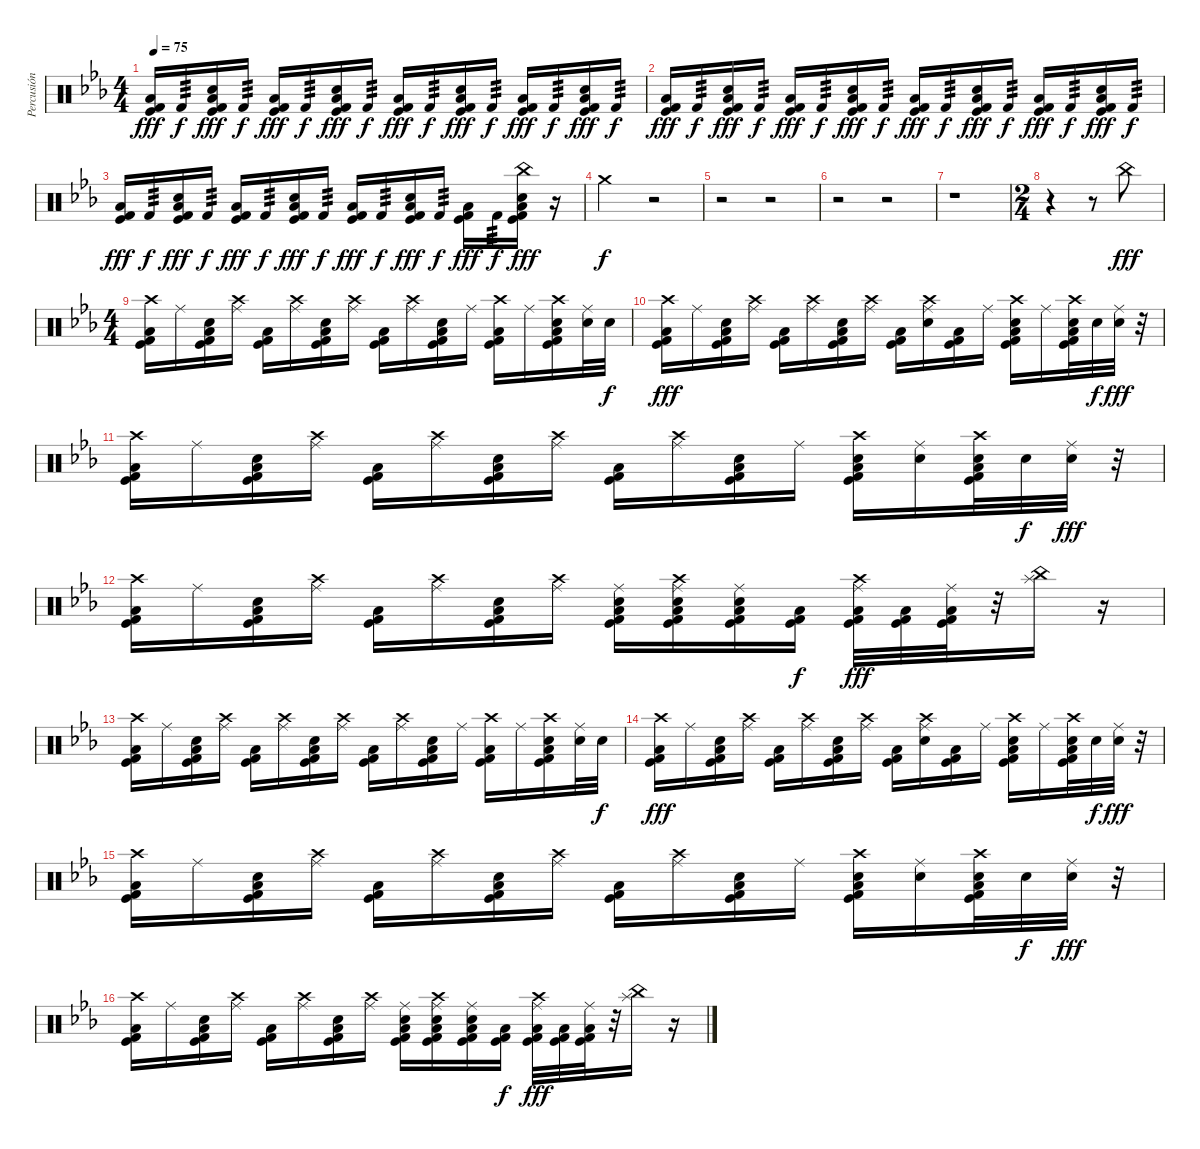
\track ("Percusión" "Percusión") {instrument percussion}
\staff {score}
\articulation defaults
\ts (4 4)
\tempo 75
\clef neutral
\ks eb
("Low Floor Tom (hit)" "Kick (hit) 2" "Kick (hit)").16{dy fff} "Kick (hit) 2".16{tp 3 dy f} ("Low Floor Tom (hit)" "Electric Snare (hit)" "Kick (hit) 2" "Kick (hit)").16{dy fff} "Kick (hit) 2".16{tp 3 dy f} ("Low Floor Tom (hit)" "Kick (hit) 2" "Kick (hit)").16{dy fff} "Kick (hit) 2".16{tp 3 dy f} ("Low Floor Tom (hit)" "Electric Snare (hit)" "Kick (hit) 2" "Kick (hit)").16{dy fff} "Kick (hit) 2".16{tp 3 dy f} ("Low Floor Tom (hit)" "Kick (hit) 2" "Kick (hit)").16{dy fff} "Kick (hit) 2".16{tp 3 dy f} ("Low Floor Tom (hit)" "Electric Snare (hit)" "Kick (hit) 2" "Kick (hit)").16{dy fff} "Kick (hit) 2".16{tp 3 dy f} ("Low Floor Tom (hit)" "Kick (hit) 2" "Kick (hit)").16{dy fff} "Kick (hit) 2".16{tp 3 dy f} ("Low Floor Tom (hit)" "Electric Snare (hit)" "Kick (hit) 2" "Kick (hit)").16{dy fff} "Kick (hit) 2".16{tp 3 dy f} |
("Low Floor Tom (hit)" "Kick (hit) 2" "Kick (hit)").16{dy fff} "Kick (hit) 2".16{tp 3 dy f} ("Low Floor Tom (hit)" "Electric Snare (hit)" "Kick (hit) 2" "Kick (hit)").16{dy fff} "Kick (hit) 2".16{tp 3 dy f} ("Low Floor Tom (hit)" "Kick (hit) 2" "Kick (hit)").16{dy fff} "Kick (hit) 2".16{tp 3 dy f} ("Low Floor Tom (hit)" "Electric Snare (hit)" "Kick (hit) 2" "Kick (hit)").16{dy fff} "Kick (hit) 2".16{tp 3 dy f} ("Low Floor Tom (hit)" "Kick (hit) 2" "Kick (hit)").16{dy fff} "Kick (hit) 2".16{tp 3 dy f} ("Low Floor Tom (hit)" "Electric Snare (hit)" "Kick (hit) 2" "Kick (hit)").16{dy fff} "Kick (hit) 2".16{tp 3 dy f} ("Low Floor Tom (hit)" "Kick (hit) 2" "Kick (hit)").16{dy fff} "Kick (hit) 2".16{tp 3 dy f} ("Low Floor Tom (hit)" "Electric Snare (hit)" "Kick (hit) 2" "Kick (hit)").16{dy fff} "Kick (hit) 2".16{tp 3 dy f} |
("Low Floor Tom (hit)" "Kick (hit) 2" "Kick (hit)").16{dy fff} "Kick (hit) 2".16{tp 3 dy f} ("Low Floor Tom (hit)" "Electric Snare (hit)" "Kick (hit) 2" "Kick (hit)").16{dy fff} "Kick (hit) 2".16{tp 3 dy f} ("Low Floor Tom (hit)" "Kick (hit) 2" "Kick (hit)").16{dy fff} "Kick (hit) 2".16{tp 3 dy f} ("Low Floor Tom (hit)" "Electric Snare (hit)" "Kick (hit) 2" "Kick (hit)").16{dy fff} "Kick (hit) 2".16{tp 3 dy f} ("Low Floor Tom (hit)" "Kick (hit) 2" "Kick (hit)").16{dy fff} "Kick (hit) 2".16{tp 3 dy f} ("Low Floor Tom (hit)" "Electric Snare (hit)" "Kick (hit) 2" "Kick (hit)").16{dy fff} "Kick (hit) 2".16{tp 3 dy f} ("Low Floor Tom (hit)" "Kick (hit) 2" "Kick (hit)").16{dy fff} "Kick (hit) 2".16{tp 3 dy f} ("China (hit)" "Low Floor Tom (hit)" "Electric Snare (hit)" "Kick (hit) 2" "Kick (hit)").16{dy fff} r.16 |
"Crash medium (hit)".2{dy f} r.2 |
r.2 r.2 |
r.2 r.2 |
r.1 |
\ts (2 4)
r.4 r.8 "China (hit)".8{dy fff} |
\ts (4 4)
("Crash high (hit)" "Low Floor Tom (hit)" "Kick (hit) 2" "Kick (hit)").16 "Ride (middle)".16 ("Low Floor Tom (hit)" "Electric Snare (hit)" "Kick (hit) 2" "Kick (hit)").16 ("Crash high (hit)" "Ride (middle)").16 ("Low Floor Tom (hit)" "Kick (hit) 2" "Kick (hit)").16 ("Crash high (hit)" "Ride (middle)").16 ("Low Floor Tom (hit)" "Electric Snare (hit)" "Kick (hit) 2" "Kick (hit)").16 ("Crash high (hit)" "Ride (middle)").16 ("Low Floor Tom (hit)" "Kick (hit) 2" "Kick (hit)").16 ("Crash high (hit)" "Ride (middle)").16 ("Low Floor Tom (hit)" "Electric Snare (hit)" "Kick (hit) 2" "Kick (hit)").16 "Ride (middle)".16 ("Crash high (hit)" "Low Floor Tom (hit)" "Kick (hit) 2" "Kick (hit)").16 "Ride (middle)".16 ("Crash high (hit)" "Low Floor Tom (hit)" "Electric Snare (hit)" "Kick (hit) 2" "Kick (hit)").16 ("Ride (middle)" "Electric Snare (hit)").32 "Electric Snare (hit)".32{dy f} |
("Crash high (hit)" "Low Floor Tom (hit)" "Kick (hit) 2" "Kick (hit)").16{dy fff} "Ride (middle)".16 ("Low Floor Tom (hit)" "Electric Snare (hit)" "Kick (hit) 2" "Kick (hit)").16 ("Crash high (hit)" "Ride (middle)").16 ("Low Floor Tom (hit)" "Kick (hit) 2" "Kick (hit)").16 ("Crash high (hit)" "Ride (middle)").16 ("Low Floor Tom (hit)" "Electric Snare (hit)" "Kick (hit) 2" "Kick (hit)").16 ("Crash high (hit)" "Ride (middle)").16 ("Low Floor Tom (hit)" "Kick (hit) 2" "Kick (hit)").16 ("Crash high (hit)" "Ride (middle)" "Electric Snare (hit)").16 ("Low Floor Tom (hit)" "Kick (hit) 2" "Kick (hit)").16 "Ride (middle)".16 ("Crash high (hit)" "Low Floor Tom (hit)" "Electric Snare (hit)" "Kick (hit) 2" "Kick (hit)").16 "Ride (middle)".16 ("Crash high (hit)" "Low Floor Tom (hit)" "Electric Snare (hit)" "Kick (hit) 2" "Kick (hit)").32 "Electric Snare (hit)".32{dy f} ("Ride (middle)" "Electric Snare (hit)").32{dy fff} r.32 |
("Crash high (hit)" "Low Floor Tom (hit)" "Kick (hit) 2" "Kick (hit)").16 "Ride (middle)".16 ("Low Floor Tom (hit)" "Electric Snare (hit)" "Kick (hit) 2" "Kick (hit)").16 ("Crash high (hit)" "Ride (middle)").16 ("Low Floor Tom (hit)" "Kick (hit) 2" "Kick (hit)").16 ("Crash high (hit)" "Ride (middle)").16 ("Low Floor Tom (hit)" "Electric Snare (hit)" "Kick (hit) 2" "Kick (hit)").16 ("Crash high (hit)" "Ride (middle)").16 ("Low Floor Tom (hit)" "Kick (hit) 2" "Kick (hit)").16 ("Crash high (hit)" "Ride (middle)").16 ("Low Floor Tom (hit)" "Electric Snare (hit)" "Kick (hit) 2" "Kick (hit)").16 "Ride (middle)".16 ("Crash high (hit)" "Low Floor Tom (hit)" "Electric Snare (hit)" "Kick (hit) 2" "Kick (hit)").16 ("Ride (middle)" "Electric Snare (hit)").16 ("Crash high (hit)" "Low Floor Tom (hit)" "Electric Snare (hit)" "Kick (hit) 2" "Kick (hit)").32 "Electric Snare (hit)".32{dy f} ("Ride (middle)" "Electric Snare (hit)").32{dy fff} r.32 |
("Crash high (hit)" "Low Floor Tom (hit)" "Kick (hit) 2" "Kick (hit)").16 "Ride (middle)".16 ("Low Floor Tom (hit)" "Electric Snare (hit)" "Kick (hit) 2" "Kick (hit)").16 ("Crash high (hit)" "Ride (middle)").16 ("Low Floor Tom (hit)" "Kick (hit) 2" "Kick (hit)").16 ("Crash high (hit)" "Ride (middle)").16 ("Low Floor Tom (hit)" "Electric Snare (hit)" "Kick (hit) 2" "Kick (hit)").16 ("Crash high (hit)" "Ride (middle)").16 ("Ride (middle)" "Low Floor Tom (hit)" "Electric Snare (hit)" "Kick (hit) 2" "Kick (hit)").16 ("Crash high (hit)" "Ride (middle)" "Low Floor Tom (hit)" "Electric Snare (hit)" "Kick (hit) 2" "Kick (hit)").16 ("Ride (middle)" "Low Floor Tom (hit)" "Electric Snare (hit)" "Kick (hit) 2" "Kick (hit)").16 ("Low Floor Tom (hit)" "Kick (hit) 2" "Kick (hit)").16{dy f} ("Crash high (hit)" "Ride (middle)" "Low Floor Tom (hit)" "Kick (hit) 2" "Kick (hit)").32{dy fff} ("Low Floor Tom (hit)" "Kick (hit) 2" "Kick (hit)").32 ("Ride (middle)" "Low Floor Tom (hit)" "Kick (hit) 2" "Kick (hit)").32 r.32 ("Splash (hit)" "China (hit)").16 r.16 |
("Crash high (hit)" "Low Floor Tom (hit)" "Kick (hit) 2" "Kick (hit)").16 "Ride (middle)".16 ("Low Floor Tom (hit)" "Electric Snare (hit)" "Kick (hit) 2" "Kick (hit)").16 ("Crash high (hit)" "Ride (middle)").16 ("Low Floor Tom (hit)" "Kick (hit) 2" "Kick (hit)").16 ("Crash high (hit)" "Ride (middle)").16 ("Low Floor Tom (hit)" "Electric Snare (hit)" "Kick (hit) 2" "Kick (hit)").16 ("Crash high (hit)" "Ride (middle)").16 ("Low Floor Tom (hit)" "Kick (hit) 2" "Kick (hit)").16 ("Crash high (hit)" "Ride (middle)").16 ("Low Floor Tom (hit)" "Electric Snare (hit)" "Kick (hit) 2" "Kick (hit)").16 "Ride (middle)".16 ("Crash high (hit)" "Low Floor Tom (hit)" "Kick (hit) 2" "Kick (hit)").16 "Ride (middle)".16 ("Crash high (hit)" "Low Floor Tom (hit)" "Electric Snare (hit)" "Kick (hit) 2" "Kick (hit)").16 ("Ride (middle)" "Electric Snare (hit)").32 "Electric Snare (hit)".32{dy f} |
("Crash high (hit)" "Low Floor Tom (hit)" "Kick (hit) 2" "Kick (hit)").16{dy fff} "Ride (middle)".16 ("Low Floor Tom (hit)" "Electric Snare (hit)" "Kick (hit) 2" "Kick (hit)").16 ("Crash high (hit)" "Ride (middle)").16 ("Low Floor Tom (hit)" "Kick (hit) 2" "Kick (hit)").16 ("Crash high (hit)" "Ride (middle)").16 ("Low Floor Tom (hit)" "Electric Snare (hit)" "Kick (hit) 2" "Kick (hit)").16 ("Crash high (hit)" "Ride (middle)").16 ("Low Floor Tom (hit)" "Kick (hit) 2" "Kick (hit)").16 ("Crash high (hit)" "Ride (middle)" "Electric Snare (hit)").16 ("Low Floor Tom (hit)" "Kick (hit) 2" "Kick (hit)").16 "Ride (middle)".16 ("Crash high (hit)" "Low Floor Tom (hit)" "Electric Snare (hit)" "Kick (hit) 2" "Kick (hit)").16 "Ride (middle)".16 ("Crash high (hit)" "Low Floor Tom (hit)" "Electric Snare (hit)" "Kick (hit) 2" "Kick (hit)").32 "Electric Snare (hit)".32{dy f} ("Ride (middle)" "Electric Snare (hit)").32{dy fff} r.32 |
("Crash high (hit)" "Low Floor Tom (hit)" "Kick (hit) 2" "Kick (hit)").16 "Ride (middle)".16 ("Low Floor Tom (hit)" "Electric Snare (hit)" "Kick (hit) 2" "Kick (hit)").16 ("Crash high (hit)" "Ride (middle)").16 ("Low Floor Tom (hit)" "Kick (hit) 2" "Kick (hit)").16 ("Crash high (hit)" "Ride (middle)").16 ("Low Floor Tom (hit)" "Electric Snare (hit)" "Kick (hit) 2" "Kick (hit)").16 ("Crash high (hit)" "Ride (middle)").16 ("Low Floor Tom (hit)" "Kick (hit) 2" "Kick (hit)").16 ("Crash high (hit)" "Ride (middle)").16 ("Low Floor Tom (hit)" "Electric Snare (hit)" "Kick (hit) 2" "Kick (hit)").16 "Ride (middle)".16 ("Crash high (hit)" "Low Floor Tom (hit)" "Electric Snare (hit)" "Kick (hit) 2" "Kick (hit)").16 ("Ride (middle)" "Electric Snare (hit)").16 ("Crash high (hit)" "Low Floor Tom (hit)" "Electric Snare (hit)" "Kick (hit) 2" "Kick (hit)").32 "Electric Snare (hit)".32{dy f} ("Ride (middle)" "Electric Snare (hit)").32{dy fff} r.32 |
("Crash high (hit)" "Low Floor Tom (hit)" "Kick (hit) 2" "Kick (hit)").16 "Ride (middle)".16 ("Low Floor Tom (hit)" "Electric Snare (hit)" "Kick (hit) 2" "Kick (hit)").16 ("Crash high (hit)" "Ride (middle)").16 ("Low Floor Tom (hit)" "Kick (hit) 2" "Kick (hit)").16 ("Crash high (hit)" "Ride (middle)").16 ("Low Floor Tom (hit)" "Electric Snare (hit)" "Kick (hit) 2" "Kick (hit)").16 ("Crash high (hit)" "Ride (middle)").16 ("Ride (middle)" "Low Floor Tom (hit)" "Electric Snare (hit)" "Kick (hit) 2" "Kick (hit)").16 ("Crash high (hit)" "Ride (middle)" "Low Floor Tom (hit)" "Electric Snare (hit)" "Kick (hit) 2" "Kick (hit)").16 ("Ride (middle)" "Low Floor Tom (hit)" "Electric Snare (hit)" "Kick (hit) 2" "Kick (hit)").16 ("Low Floor Tom (hit)" "Kick (hit) 2" "Kick (hit)").16{dy f} ("Crash high (hit)" "Ride (middle)" "Low Floor Tom (hit)" "Kick (hit) 2" "Kick (hit)").32{dy fff} ("Low Floor Tom (hit)" "Kick (hit) 2" "Kick (hit)").32 ("Ride (middle)" "Low Floor Tom (hit)" "Kick (hit) 2" "Kick (hit)").32 r.32 ("Splash (hit)" "China (hit)").16 r.16
